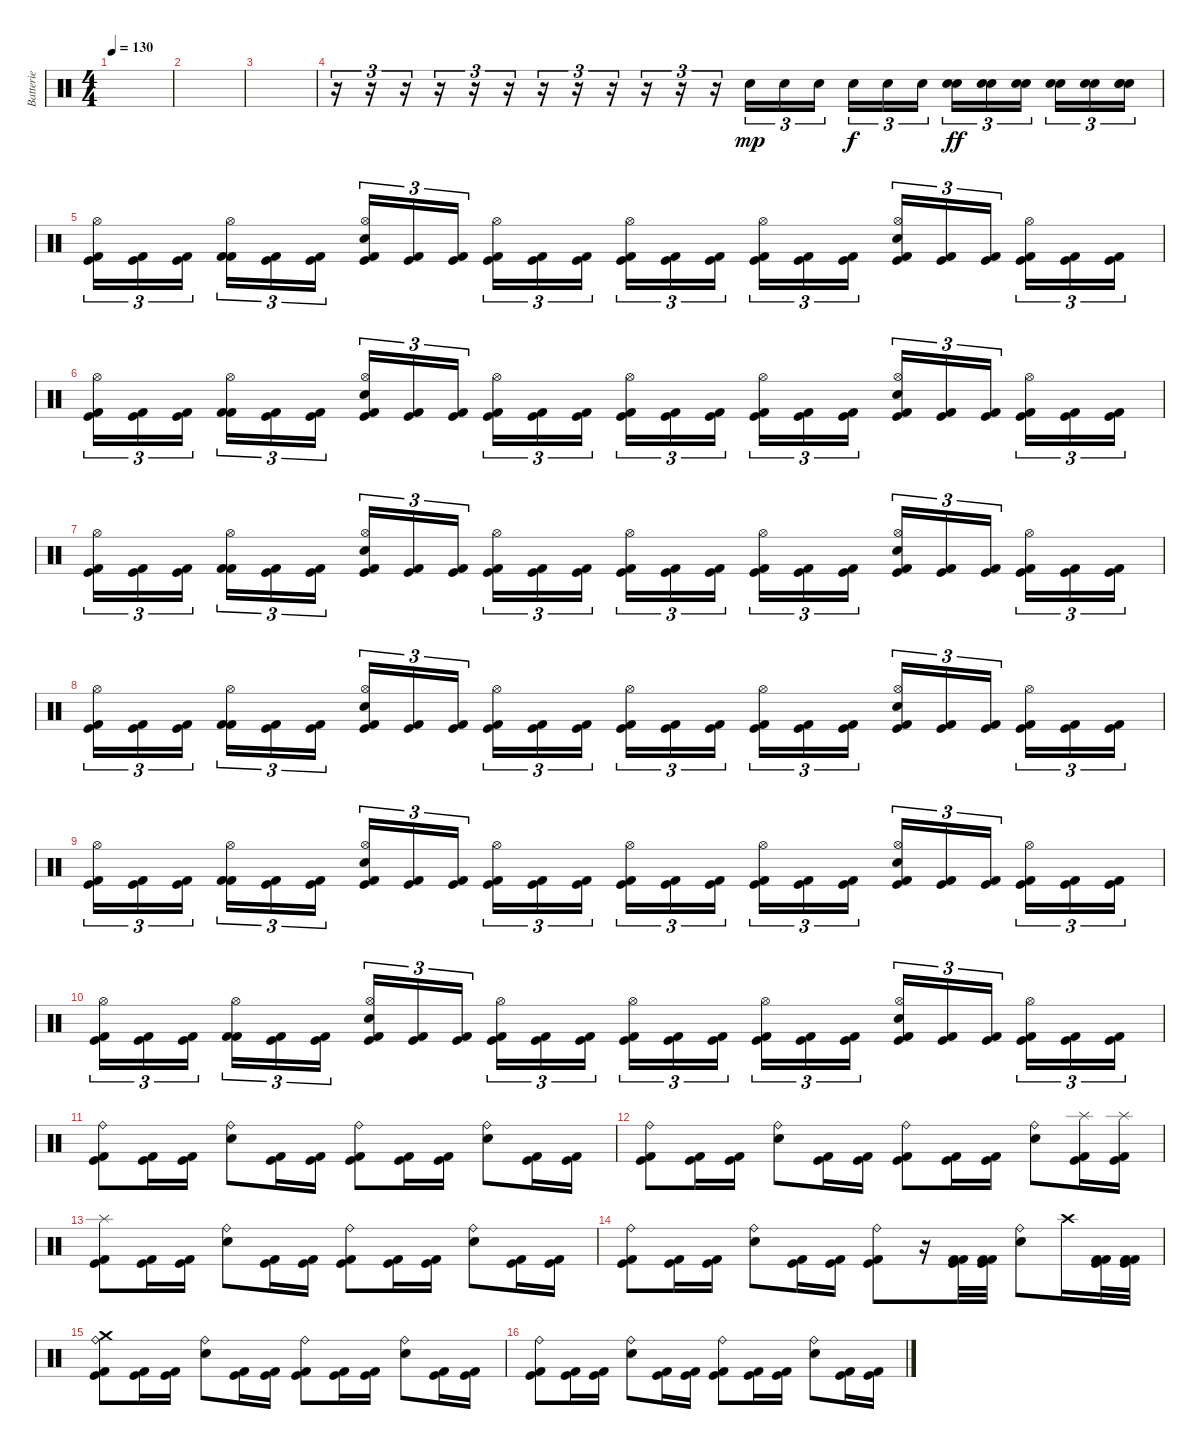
\track ("Batterie" "Batterie") {instrument percussion}
\staff {score}
\articulation defaults
\ts (4 4)
\tempo 130
\clef neutral
\ks c
|
|
|
r.16{tu (3 2)} r.16{tu (3 2)} r.16{tu (3 2)} r.16{tu (3 2)} r.16{tu (3 2)} r.16{tu (3 2)} r.16{tu (3 2)} r.16{tu (3 2)} r.16{tu (3 2)} r.16{tu (3 2)} r.16{tu (3 2)} r.16{tu (3 2)} "Electric Snare (hit)".16{tu (3 2) dy mp} "Electric Snare (hit)".16{tu (3 2)} "Electric Snare (hit)".16{tu (3 2)} "Electric Snare (hit)".16{tu (3 2) dy f} "Electric Snare (hit)".16{tu (3 2)} "Electric Snare (hit)".16{tu (3 2)} ("Electric Snare (hit)" "Electric Snare (hit)").16{tu (3 2) dy ff} ("Electric Snare (hit)" "Electric Snare (hit)").16{tu (3 2)} ("Electric Snare (hit)" "Electric Snare (hit)").16{tu (3 2)} ("Electric Snare (hit)" "Electric Snare (hit)").16{tu (3 2)} ("Electric Snare (hit)" "Electric Snare (hit)").16{tu (3 2)} ("Electric Snare (hit)" "Electric Snare (hit)" "Electric Snare (hit)").16{tu (3 2)} |
("Hi-Hat (open)" "Kick (hit)" "Kick (hit) 2").16{tu (3 2)} ("Kick (hit) 2" "Kick (hit)").16{tu (3 2)} ("Kick (hit)" "Kick (hit) 2").16{tu (3 2)} ("Hi-Hat (open)" "Kick (hit) 2" "Kick (hit) 2").16{tu (3 2)} ("Kick (hit) 2" "Kick (hit)").16{tu (3 2)} ("Kick (hit) 2" "Kick (hit)").16{tu (3 2)} ("Hi-Hat (open)" "Electric Snare (hit)" "Kick (hit)" "Kick (hit) 2").16{tu (3 2)} ("Kick (hit) 2" "Kick (hit)").16{tu (3 2)} ("Kick (hit) 2" "Kick (hit)").16{tu (3 2)} ("Hi-Hat (open)" "Kick (hit)" "Kick (hit) 2").16{tu (3 2)} ("Kick (hit) 2" "Kick (hit)").16{tu (3 2)} ("Kick (hit)" "Kick (hit) 2").16{tu (3 2)} ("Hi-Hat (open)" "Kick (hit) 2" "Kick (hit)").16{tu (3 2)} ("Kick (hit) 2" "Kick (hit)").16{tu (3 2)} ("Kick (hit)" "Kick (hit) 2").16{tu (3 2)} ("Hi-Hat (open)" "Kick (hit) 2" "Kick (hit)").16{tu (3 2)} ("Kick (hit)" "Kick (hit) 2").16{tu (3 2)} ("Kick (hit) 2" "Kick (hit)").16{tu (3 2)} ("Hi-Hat (open)" "Electric Snare (hit)" "Kick (hit)" "Kick (hit) 2").16{tu (3 2)} ("Kick (hit) 2" "Kick (hit)").16{tu (3 2)} ("Kick (hit)" "Kick (hit) 2").16{tu (3 2)} ("Hi-Hat (open)" "Kick (hit)" "Kick (hit) 2").16{tu (3 2)} ("Kick (hit) 2" "Kick (hit)").16{tu (3 2)} ("Kick (hit)" "Kick (hit) 2").16{tu (3 2)} |
("Hi-Hat (open)" "Kick (hit)" "Kick (hit) 2").16{tu (3 2)} ("Kick (hit) 2" "Kick (hit)").16{tu (3 2)} ("Kick (hit)" "Kick (hit) 2").16{tu (3 2)} ("Hi-Hat (open)" "Kick (hit) 2" "Kick (hit) 2").16{tu (3 2)} ("Kick (hit) 2" "Kick (hit)").16{tu (3 2)} ("Kick (hit) 2" "Kick (hit)").16{tu (3 2)} ("Hi-Hat (open)" "Electric Snare (hit)" "Kick (hit)" "Kick (hit) 2").16{tu (3 2)} ("Kick (hit) 2" "Kick (hit)").16{tu (3 2)} ("Kick (hit) 2" "Kick (hit)").16{tu (3 2)} ("Hi-Hat (open)" "Kick (hit)" "Kick (hit) 2").16{tu (3 2)} ("Kick (hit) 2" "Kick (hit)").16{tu (3 2)} ("Kick (hit)" "Kick (hit) 2").16{tu (3 2)} ("Hi-Hat (open)" "Kick (hit) 2" "Kick (hit)").16{tu (3 2)} ("Kick (hit) 2" "Kick (hit)").16{tu (3 2)} ("Kick (hit)" "Kick (hit) 2").16{tu (3 2)} ("Hi-Hat (open)" "Kick (hit) 2" "Kick (hit)").16{tu (3 2)} ("Kick (hit)" "Kick (hit) 2").16{tu (3 2)} ("Kick (hit) 2" "Kick (hit)").16{tu (3 2)} ("Hi-Hat (open)" "Electric Snare (hit)" "Kick (hit)" "Kick (hit) 2").16{tu (3 2)} ("Kick (hit) 2" "Kick (hit)").16{tu (3 2)} ("Kick (hit)" "Kick (hit) 2").16{tu (3 2)} ("Hi-Hat (open)" "Kick (hit)" "Kick (hit) 2").16{tu (3 2)} ("Kick (hit) 2" "Kick (hit)").16{tu (3 2)} ("Kick (hit)" "Kick (hit) 2").16{tu (3 2)} |
("Hi-Hat (open)" "Kick (hit)" "Kick (hit) 2").16{tu (3 2)} ("Kick (hit) 2" "Kick (hit)").16{tu (3 2)} ("Kick (hit)" "Kick (hit) 2").16{tu (3 2)} ("Hi-Hat (open)" "Kick (hit) 2" "Kick (hit) 2").16{tu (3 2)} ("Kick (hit) 2" "Kick (hit)").16{tu (3 2)} ("Kick (hit) 2" "Kick (hit)").16{tu (3 2)} ("Hi-Hat (open)" "Electric Snare (hit)" "Kick (hit)" "Kick (hit) 2").16{tu (3 2)} ("Kick (hit) 2" "Kick (hit)").16{tu (3 2)} ("Kick (hit) 2" "Kick (hit)").16{tu (3 2)} ("Hi-Hat (open)" "Kick (hit)" "Kick (hit) 2").16{tu (3 2)} ("Kick (hit) 2" "Kick (hit)").16{tu (3 2)} ("Kick (hit)" "Kick (hit) 2").16{tu (3 2)} ("Hi-Hat (open)" "Kick (hit) 2" "Kick (hit)").16{tu (3 2)} ("Kick (hit) 2" "Kick (hit)").16{tu (3 2)} ("Kick (hit)" "Kick (hit) 2").16{tu (3 2)} ("Hi-Hat (open)" "Kick (hit) 2" "Kick (hit)").16{tu (3 2)} ("Kick (hit)" "Kick (hit) 2").16{tu (3 2)} ("Kick (hit) 2" "Kick (hit)").16{tu (3 2)} ("Hi-Hat (open)" "Electric Snare (hit)" "Kick (hit)" "Kick (hit) 2").16{tu (3 2)} ("Kick (hit) 2" "Kick (hit)").16{tu (3 2)} ("Kick (hit)" "Kick (hit) 2").16{tu (3 2)} ("Hi-Hat (open)" "Kick (hit)" "Kick (hit) 2").16{tu (3 2)} ("Kick (hit) 2" "Kick (hit)").16{tu (3 2)} ("Kick (hit)" "Kick (hit) 2").16{tu (3 2)} |
("Hi-Hat (open)" "Kick (hit)" "Kick (hit) 2").16{tu (3 2)} ("Kick (hit) 2" "Kick (hit)").16{tu (3 2)} ("Kick (hit)" "Kick (hit) 2").16{tu (3 2)} ("Hi-Hat (open)" "Kick (hit) 2" "Kick (hit) 2").16{tu (3 2)} ("Kick (hit) 2" "Kick (hit)").16{tu (3 2)} ("Kick (hit) 2" "Kick (hit)").16{tu (3 2)} ("Hi-Hat (open)" "Electric Snare (hit)" "Kick (hit)" "Kick (hit) 2").16{tu (3 2)} ("Kick (hit) 2" "Kick (hit)").16{tu (3 2)} ("Kick (hit) 2" "Kick (hit)").16{tu (3 2)} ("Hi-Hat (open)" "Kick (hit)" "Kick (hit) 2").16{tu (3 2)} ("Kick (hit) 2" "Kick (hit)").16{tu (3 2)} ("Kick (hit)" "Kick (hit) 2").16{tu (3 2)} ("Hi-Hat (open)" "Kick (hit) 2" "Kick (hit)").16{tu (3 2)} ("Kick (hit) 2" "Kick (hit)").16{tu (3 2)} ("Kick (hit)" "Kick (hit) 2").16{tu (3 2)} ("Hi-Hat (open)" "Kick (hit) 2" "Kick (hit)").16{tu (3 2)} ("Kick (hit)" "Kick (hit) 2").16{tu (3 2)} ("Kick (hit) 2" "Kick (hit)").16{tu (3 2)} ("Hi-Hat (open)" "Electric Snare (hit)" "Kick (hit)" "Kick (hit) 2").16{tu (3 2)} ("Kick (hit) 2" "Kick (hit)").16{tu (3 2)} ("Kick (hit)" "Kick (hit) 2").16{tu (3 2)} ("Hi-Hat (open)" "Kick (hit)" "Kick (hit) 2").16{tu (3 2)} ("Kick (hit) 2" "Kick (hit)").16{tu (3 2)} ("Kick (hit)" "Kick (hit) 2").16{tu (3 2)} |
("Hi-Hat (open)" "Kick (hit)" "Kick (hit) 2").16{tu (3 2)} ("Kick (hit) 2" "Kick (hit)").16{tu (3 2)} ("Kick (hit)" "Kick (hit) 2").16{tu (3 2)} ("Hi-Hat (open)" "Kick (hit) 2" "Kick (hit) 2").16{tu (3 2)} ("Kick (hit) 2" "Kick (hit)").16{tu (3 2)} ("Kick (hit) 2" "Kick (hit)").16{tu (3 2)} ("Hi-Hat (open)" "Electric Snare (hit)" "Kick (hit)" "Kick (hit) 2").16{tu (3 2)} ("Kick (hit) 2" "Kick (hit)").16{tu (3 2)} ("Kick (hit) 2" "Kick (hit)").16{tu (3 2)} ("Hi-Hat (open)" "Kick (hit)" "Kick (hit) 2").16{tu (3 2)} ("Kick (hit) 2" "Kick (hit)").16{tu (3 2)} ("Kick (hit)" "Kick (hit) 2").16{tu (3 2)} ("Hi-Hat (open)" "Kick (hit) 2" "Kick (hit)").16{tu (3 2)} ("Kick (hit) 2" "Kick (hit)").16{tu (3 2)} ("Kick (hit)" "Kick (hit) 2").16{tu (3 2)} ("Hi-Hat (open)" "Kick (hit) 2" "Kick (hit)").16{tu (3 2)} ("Kick (hit)" "Kick (hit) 2").16{tu (3 2)} ("Kick (hit) 2" "Kick (hit)").16{tu (3 2)} ("Hi-Hat (open)" "Electric Snare (hit)" "Kick (hit)" "Kick (hit) 2").16{tu (3 2)} ("Kick (hit) 2" "Kick (hit)").16{tu (3 2)} ("Kick (hit)" "Kick (hit) 2").16{tu (3 2)} ("Hi-Hat (open)" "Kick (hit)" "Kick (hit) 2").16{tu (3 2)} ("Kick (hit) 2" "Kick (hit)").16{tu (3 2)} ("Kick (hit)" "Kick (hit) 2").16{tu (3 2)} |
("Hi-Hat (open)" "Kick (hit)" "Kick (hit) 2").16{tu (3 2)} ("Kick (hit) 2" "Kick (hit)").16{tu (3 2)} ("Kick (hit)" "Kick (hit) 2").16{tu (3 2)} ("Hi-Hat (open)" "Kick (hit) 2" "Kick (hit) 2").16{tu (3 2)} ("Kick (hit) 2" "Kick (hit)").16{tu (3 2)} ("Kick (hit) 2" "Kick (hit)").16{tu (3 2)} ("Hi-Hat (open)" "Electric Snare (hit)" "Kick (hit)" "Kick (hit) 2").16{tu (3 2)} ("Kick (hit) 2" "Kick (hit)").16{tu (3 2)} ("Kick (hit) 2" "Kick (hit)").16{tu (3 2)} ("Hi-Hat (open)" "Kick (hit)" "Kick (hit) 2").16{tu (3 2)} ("Kick (hit) 2" "Kick (hit)").16{tu (3 2)} ("Kick (hit)" "Kick (hit) 2").16{tu (3 2)} ("Hi-Hat (open)" "Kick (hit) 2" "Kick (hit)").16{tu (3 2)} ("Kick (hit) 2" "Kick (hit)").16{tu (3 2)} ("Kick (hit)" "Kick (hit) 2").16{tu (3 2)} ("Hi-Hat (open)" "Kick (hit) 2" "Kick (hit)").16{tu (3 2)} ("Kick (hit)" "Kick (hit) 2").16{tu (3 2)} ("Kick (hit) 2" "Kick (hit)").16{tu (3 2)} ("Hi-Hat (open)" "Electric Snare (hit)" "Kick (hit)" "Kick (hit) 2").16{tu (3 2)} ("Kick (hit) 2" "Kick (hit)").16{tu (3 2)} ("Kick (hit)" "Kick (hit) 2").16{tu (3 2)} ("Hi-Hat (open)" "Kick (hit)" "Kick (hit) 2").16{tu (3 2)} ("Kick (hit) 2" "Kick (hit)").16{tu (3 2)} ("Kick (hit)" "Kick (hit) 2").16{tu (3 2)} |
("Ride (bell)" "Kick (hit) 2" "Kick (hit)").8 ("Kick (hit)" "Kick (hit) 2").16 ("Kick (hit) 2" "Kick (hit)").16 ("Ride (bell)" "Electric Snare (hit)").8 ("Kick (hit) 2" "Kick (hit)").16 ("Kick (hit)" "Kick (hit) 2").16 ("Ride (bell)" "Kick (hit)" "Kick (hit) 2").8 ("Kick (hit) 2" "Kick (hit)").16 ("Kick (hit)" "Kick (hit) 2").16 ("Ride (bell)" "Electric Snare (hit)").8 ("Kick (hit)" "Kick (hit) 2").16 ("Kick (hit) 2" "Kick (hit)").16 |
("Ride (bell)" "Kick (hit) 2" "Kick (hit)").8 ("Kick (hit)" "Kick (hit) 2").16 ("Kick (hit) 2" "Kick (hit)").16 ("Ride (bell)" "Electric Snare (hit)").8 ("Kick (hit) 2" "Kick (hit)").16 ("Kick (hit)" "Kick (hit) 2").16 ("Ride (bell)" "Kick (hit)" "Kick (hit) 2").8 ("Kick (hit) 2" "Kick (hit)").16 ("Kick (hit)" "Kick (hit) 2").16 ("Ride (bell)" "Electric Snare (hit)").8 ("Splash (hit)" "Kick (hit)" "Kick (hit) 2").16 ("Splash (hit)" "Kick (hit) 2" "Kick (hit)").16 |
("Splash (hit)" "Kick (hit) 2" "Kick (hit)").8 ("Kick (hit)" "Kick (hit) 2").16 ("Kick (hit) 2" "Kick (hit)").16 ("Ride (bell)" "Electric Snare (hit)").8 ("Kick (hit) 2" "Kick (hit)").16 ("Kick (hit)" "Kick (hit) 2").16 ("Ride (bell)" "Kick (hit)" "Kick (hit) 2").8 ("Kick (hit) 2" "Kick (hit)").16 ("Kick (hit)" "Kick (hit) 2").16 ("Ride (bell)" "Electric Snare (hit)").8 ("Kick (hit)" "Kick (hit) 2").16 ("Kick (hit) 2" "Kick (hit)").16 |
("Ride (bell)" "Kick (hit) 2" "Kick (hit)").8 ("Kick (hit)" "Kick (hit) 2").16 ("Kick (hit) 2" "Kick (hit)").16 ("Ride (bell)" "Electric Snare (hit)").8 ("Kick (hit) 2" "Kick (hit)").16 ("Kick (hit)" "Kick (hit) 2").16 ("Ride (bell)" "Kick (hit)" "Kick (hit) 2").8 r.16 ("Kick (hit) 2" "Kick (hit) 2" "Kick (hit)").32 ("Kick (hit) 2" "Kick (hit)" "Kick (hit) 2").32 ("Ride (bell)" "Electric Snare (hit)").8 "Crash high (hit)".16 ("Kick (hit) 2" "Kick (hit) 2" "Kick (hit)").32 ("Kick (hit) 2" "Kick (hit) 2" "Kick (hit)").32 |
("Ride (bell)" "Crash medium (hit)" "Kick (hit) 2" "Kick (hit)").8 ("Kick (hit)" "Kick (hit) 2").16 ("Kick (hit) 2" "Kick (hit)").16 ("Ride (bell)" "Electric Snare (hit)").8 ("Kick (hit) 2" "Kick (hit)").16 ("Kick (hit)" "Kick (hit) 2").16 ("Ride (bell)" "Kick (hit)" "Kick (hit) 2").8 ("Kick (hit) 2" "Kick (hit)").16 ("Kick (hit)" "Kick (hit) 2").16 ("Ride (bell)" "Electric Snare (hit)").8 ("Kick (hit)" "Kick (hit) 2").16 ("Kick (hit) 2" "Kick (hit)").16 |
("Ride (bell)" "Kick (hit) 2" "Kick (hit)").8 ("Kick (hit)" "Kick (hit) 2").16 ("Kick (hit) 2" "Kick (hit)").16 ("Ride (bell)" "Electric Snare (hit)").8 ("Kick (hit) 2" "Kick (hit)").16 ("Kick (hit)" "Kick (hit) 2").16 ("Ride (bell)" "Kick (hit)" "Kick (hit) 2").8 ("Kick (hit) 2" "Kick (hit)").16 ("Kick (hit)" "Kick (hit) 2").16 ("Ride (bell)" "Electric Snare (hit)").8 ("Kick (hit)" "Kick (hit) 2").16 ("Kick (hit) 2" "Kick (hit)").16
